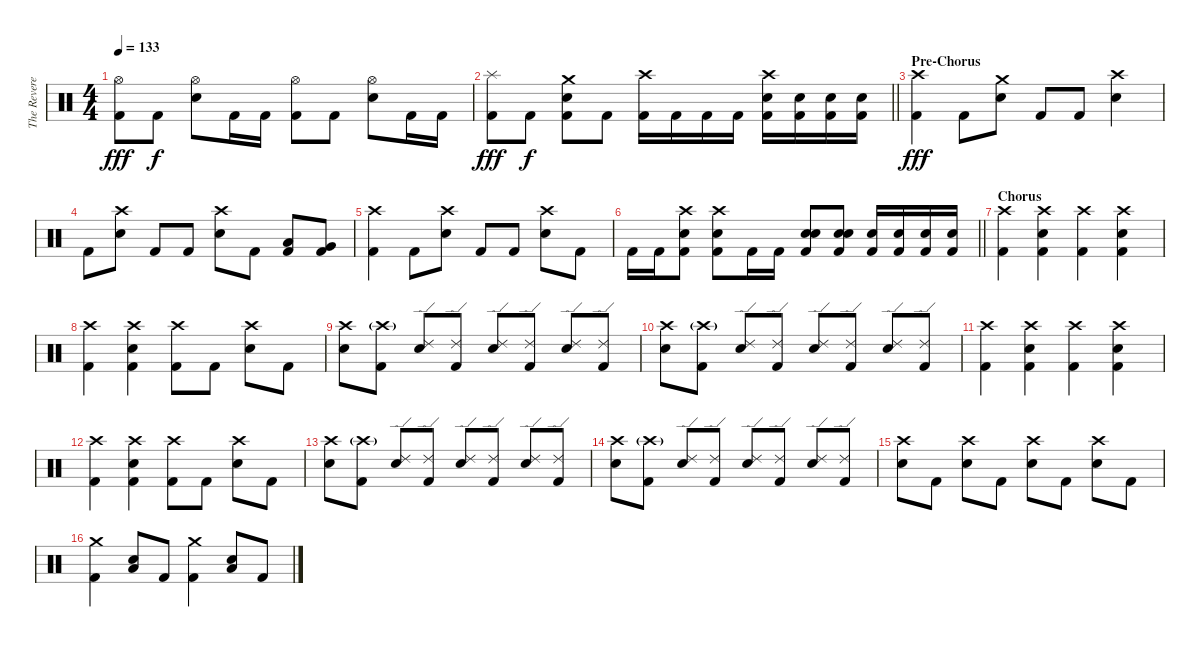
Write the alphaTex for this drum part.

\track ("The Reverend (R.I.P.) [Drums]" "The Revere") {instrument percussion}
\staff {score}
\articulation defaults
\ts (4 4)
\tempo 133
\clef neutral
\ks c
("Hi-Hat (open)" "Kick (hit) 2").8{dy fff} "Kick (hit) 2".8{dy f} ("Hi-Hat (open)" "Electric Snare (hit)").8 "Kick (hit) 2".16 "Kick (hit) 2".16 ("Hi-Hat (open)" "Kick (hit) 2").8 "Kick (hit) 2".8 ("Hi-Hat (open)" "Electric Snare (hit)").8 "Kick (hit) 2".16 "Kick (hit) 2".16 |
\barLineRight lightlight
("Splash (hit)" "Kick (hit) 2").8{dy fff} "Kick (hit) 2".8{dy f} ("Crash medium (hit)" "Electric Snare (hit)" "Kick (hit) 2").8 "Kick (hit) 2".8 ("Crash high (hit)" "Kick (hit) 2").16 "Kick (hit) 2".16 "Kick (hit) 2".16 "Kick (hit) 2".16 ("Crash high (hit)" "Electric Snare (hit)" "Kick (hit) 2").16 ("Electric Snare (hit)" "Kick (hit) 2").16 ("Electric Snare (hit)" "Kick (hit) 2").16 ("Electric Snare (hit)" "Kick (hit) 2").16 |
\section ("" "Pre-Chorus")
("Crash high (hit)" "Kick (hit) 2").4{dy fff} "Kick (hit) 2".8 ("Crash medium (hit)" "Electric Snare (hit)").8 "Kick (hit) 2".8 "Kick (hit) 2".8 ("Crash high (hit)" "Electric Snare (hit)").4 |
"Kick (hit) 2".8 ("Crash high (hit)" "Electric Snare (hit)").8 "Kick (hit) 2".8 "Kick (hit) 2".8 ("Crash high (hit)" "Electric Snare (hit)").8 "Kick (hit) 2".8 ("Low Tom (hit)" "Kick (hit) 2").8 ("Very Low Tom (hit)" "Kick (hit) 2").8 |
("Crash high (hit)" "Kick (hit) 2").4 "Kick (hit) 2".8 ("Crash high (hit)" "Electric Snare (hit)").8 "Kick (hit) 2".8 "Kick (hit) 2".8 ("Crash high (hit)" "Electric Snare (hit)").8 "Kick (hit) 2".8 |
\barLineRight lightlight "Kick (hit) 2".16 "Kick (hit) 2".16
("Crash high (hit)" "Electric Snare (hit)" "Kick (hit) 2").8 ("Crash high (hit)" "Electric Snare (hit)" "Kick (hit) 2").8 "Kick (hit) 2".16 "Kick (hit) 2".16 ("Electric Snare (hit)" "Electric Snare (hit)" "Kick (hit) 2").8 ("Electric Snare (hit)" "Electric Snare (hit)" "Kick (hit) 2").8 ("Electric Snare (hit)" "Kick (hit) 2").16 ("Electric Snare (hit)" "Kick (hit) 2").16 ("Electric Snare (hit)" "Kick (hit) 2").16 ("Electric Snare (hit)" "Kick (hit) 2").16 |
\section ("" "Chorus")
("Crash high (hit)" "Kick (hit) 2").4 ("Crash high (hit)" "Electric Snare (hit)" "Kick (hit) 2").4 ("Crash high (hit)" "Kick (hit) 2").4 ("Crash high (hit)" "Electric Snare (hit)" "Kick (hit) 2").4 |
("Crash high (hit)" "Kick (hit) 2").4 ("Crash high (hit)" "Electric Snare (hit)" "Kick (hit) 2").4 ("Crash high (hit)" "Kick (hit) 2").8 "Kick (hit) 2".8 ("Crash high (hit)" "Electric Snare (hit)").8 "Kick (hit) 2".8 |
("Crash high (hit)" "Electric Snare (hit)").8 ("Crash high (hit)"{g} "Kick (hit) 2").8 ("Ride (edge) 2" "Electric Snare (hit)").8 ("Ride (edge) 2" "Kick (hit) 2").8 ("Ride (edge) 2" "Electric Snare (hit)").8 ("Ride (edge) 2" "Kick (hit) 2").8 ("Ride (edge) 2" "Electric Snare (hit)").8 ("Ride (edge) 2" "Kick (hit) 2").8 |
("Crash high (hit)" "Electric Snare (hit)").8 ("Crash high (hit)"{g} "Kick (hit) 2").8 ("Ride (edge) 2" "Electric Snare (hit)").8 ("Ride (edge) 2" "Kick (hit) 2").8 ("Ride (edge) 2" "Electric Snare (hit)").8 ("Ride (edge) 2" "Kick (hit) 2").8 ("Ride (edge) 2" "Electric Snare (hit)").8 ("Ride (edge) 2" "Kick (hit) 2").8 |
("Crash high (hit)" "Kick (hit) 2").4 ("Crash high (hit)" "Electric Snare (hit)" "Kick (hit) 2").4 ("Crash high (hit)" "Kick (hit) 2").4 ("Crash high (hit)" "Electric Snare (hit)" "Kick (hit) 2").4 |
("Crash high (hit)" "Kick (hit) 2").4 ("Crash high (hit)" "Electric Snare (hit)" "Kick (hit) 2").4 ("Crash high (hit)" "Kick (hit) 2").8 "Kick (hit) 2".8 ("Crash high (hit)" "Electric Snare (hit)").8 "Kick (hit) 2".8 |
("Crash high (hit)" "Electric Snare (hit)").8 ("Crash high (hit)"{g} "Kick (hit) 2").8 ("Ride (edge) 2" "Electric Snare (hit)").8 ("Ride (edge) 2" "Kick (hit) 2").8 ("Ride (edge) 2" "Electric Snare (hit)").8 ("Ride (edge) 2" "Kick (hit) 2").8 ("Ride (edge) 2" "Electric Snare (hit)").8 ("Ride (edge) 2" "Kick (hit) 2").8 |
("Crash high (hit)" "Electric Snare (hit)").8 ("Crash high (hit)"{g} "Kick (hit) 2").8 ("Ride (edge) 2" "Electric Snare (hit)").8 ("Ride (edge) 2" "Kick (hit) 2").8 ("Ride (edge) 2" "Electric Snare (hit)").8 ("Ride (edge) 2" "Kick (hit) 2").8 ("Ride (edge) 2" "Electric Snare (hit)").8 ("Ride (edge) 2" "Kick (hit) 2").8 |
("Crash high (hit)" "Electric Snare (hit)").8 "Kick (hit) 2".8 ("Crash high (hit)" "Electric Snare (hit)").8 "Kick (hit) 2".8 ("Crash high (hit)" "Electric Snare (hit)").8 "Kick (hit) 2".8 ("Crash high (hit)" "Electric Snare (hit)").8 "Kick (hit) 2".8 |
("Crash medium (hit)" "Kick (hit) 2").4 ("Low Floor Tom (hit)" "Electric Snare (hit)").8 "Kick (hit) 2".8 ("Crash medium (hit)" "Kick (hit) 2").4 ("Low Floor Tom (hit)" "Electric Snare (hit)").8 "Kick (hit) 2".8
